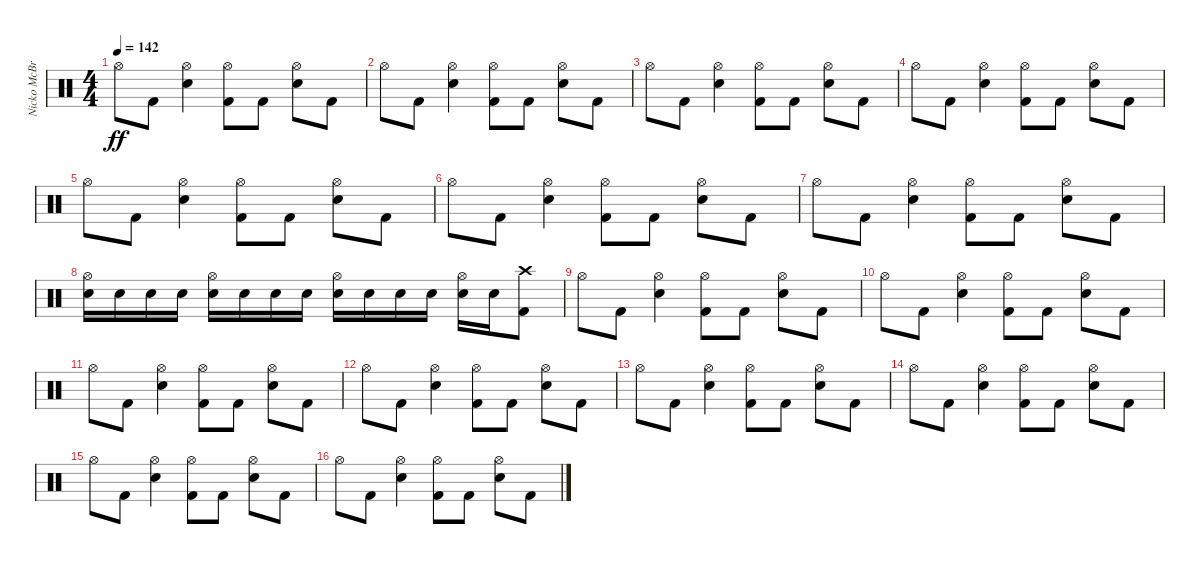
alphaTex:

\track ("Nicko McBrain" "Nicko McBr") {instrument percussion}
\staff {score}
\articulation defaults
\ts (4 4)
\tempo 142
\clef neutral
\ks c "Hi-Hat (open)".8{dy ff} "Kick (hit) 2".8
("Snare (hit) 2" "Hi-Hat (open)").4 ("Kick (hit) 2" "Hi-Hat (open)").8 "Kick (hit) 2".8 ("Snare (hit) 2" "Hi-Hat (open)").8 "Kick (hit) 2".8 |
"Hi-Hat (open)".8 "Kick (hit) 2".8 ("Snare (hit) 2" "Hi-Hat (open)").4 ("Kick (hit) 2" "Hi-Hat (open)").8 "Kick (hit) 2".8 ("Snare (hit) 2" "Hi-Hat (open)").8 "Kick (hit) 2".8 |
"Hi-Hat (open)".8 "Kick (hit) 2".8 ("Snare (hit) 2" "Hi-Hat (open)").4 ("Kick (hit) 2" "Hi-Hat (open)").8 "Kick (hit) 2".8 ("Snare (hit) 2" "Hi-Hat (open)").8 "Kick (hit) 2".8 |
"Hi-Hat (open)".8 "Kick (hit) 2".8 ("Snare (hit) 2" "Hi-Hat (open)").4 ("Kick (hit) 2" "Hi-Hat (open)").8 "Kick (hit) 2".8 ("Snare (hit) 2" "Hi-Hat (open)").8 "Kick (hit) 2".8 |
"Hi-Hat (open)".8 "Kick (hit) 2".8 ("Snare (hit) 2" "Hi-Hat (open)").4 ("Kick (hit) 2" "Hi-Hat (open)").8 "Kick (hit) 2".8 ("Snare (hit) 2" "Hi-Hat (open)").8 "Kick (hit) 2".8 |
"Hi-Hat (open)".8 "Kick (hit) 2".8 ("Snare (hit) 2" "Hi-Hat (open)").4 ("Kick (hit) 2" "Hi-Hat (open)").8 "Kick (hit) 2".8 ("Snare (hit) 2" "Hi-Hat (open)").8 "Kick (hit) 2".8 |
"Hi-Hat (open)".8 "Kick (hit) 2".8 ("Snare (hit) 2" "Hi-Hat (open)").4 ("Kick (hit) 2" "Hi-Hat (open)").8 "Kick (hit) 2".8 ("Snare (hit) 2" "Hi-Hat (open)").8 "Kick (hit) 2".8 |
("Snare (hit) 2" "Hi-Hat (open)").16 "Snare (hit) 2".16 "Snare (hit) 2".16 "Snare (hit) 2".16 ("Snare (hit) 2" "Hi-Hat (open)").16 "Snare (hit) 2".16 "Snare (hit) 2".16 "Snare (hit) 2".16 ("Snare (hit) 2" "Hi-Hat (open)").16 "Snare (hit) 2".16 "Snare (hit) 2".16 "Snare (hit) 2".16 ("Snare (hit) 2" "Hi-Hat (open)").16 "Snare (hit) 2".16 ("Kick (hit) 2" "Crash high (hit)").8 |
"Hi-Hat (open)".8 "Kick (hit) 2".8 ("Snare (hit) 2" "Hi-Hat (open)").4 ("Kick (hit) 2" "Hi-Hat (open)").8 "Kick (hit) 2".8 ("Snare (hit) 2" "Hi-Hat (open)").8 "Kick (hit) 2".8 |
"Hi-Hat (open)".8 "Kick (hit) 2".8 ("Snare (hit) 2" "Hi-Hat (open)").4 ("Kick (hit) 2" "Hi-Hat (open)").8 "Kick (hit) 2".8 ("Snare (hit) 2" "Hi-Hat (open)").8 "Kick (hit) 2".8 |
"Hi-Hat (open)".8 "Kick (hit) 2".8 ("Snare (hit) 2" "Hi-Hat (open)").4 ("Kick (hit) 2" "Hi-Hat (open)").8 "Kick (hit) 2".8 ("Snare (hit) 2" "Hi-Hat (open)").8 "Kick (hit) 2".8 |
"Hi-Hat (open)".8 "Kick (hit) 2".8 ("Snare (hit) 2" "Hi-Hat (open)").4 ("Kick (hit) 2" "Hi-Hat (open)").8 "Kick (hit) 2".8 ("Snare (hit) 2" "Hi-Hat (open)").8 "Kick (hit) 2".8 |
"Hi-Hat (open)".8 "Kick (hit) 2".8 ("Snare (hit) 2" "Hi-Hat (open)").4 ("Kick (hit) 2" "Hi-Hat (open)").8 "Kick (hit) 2".8 ("Snare (hit) 2" "Hi-Hat (open)").8 "Kick (hit) 2".8 |
"Hi-Hat (open)".8 "Kick (hit) 2".8 ("Snare (hit) 2" "Hi-Hat (open)").4 ("Kick (hit) 2" "Hi-Hat (open)").8 "Kick (hit) 2".8 ("Snare (hit) 2" "Hi-Hat (open)").8 "Kick (hit) 2".8 |
"Hi-Hat (open)".8 "Kick (hit) 2".8 ("Snare (hit) 2" "Hi-Hat (open)").4 ("Kick (hit) 2" "Hi-Hat (open)").8 "Kick (hit) 2".8 ("Snare (hit) 2" "Hi-Hat (open)").8 "Kick (hit) 2".8 |
"Hi-Hat (open)".8 "Kick (hit) 2".8 ("Snare (hit) 2" "Hi-Hat (open)").4 ("Kick (hit) 2" "Hi-Hat (open)").8 "Kick (hit) 2".8 ("Snare (hit) 2" "Hi-Hat (open)").8 "Kick (hit) 2".8
